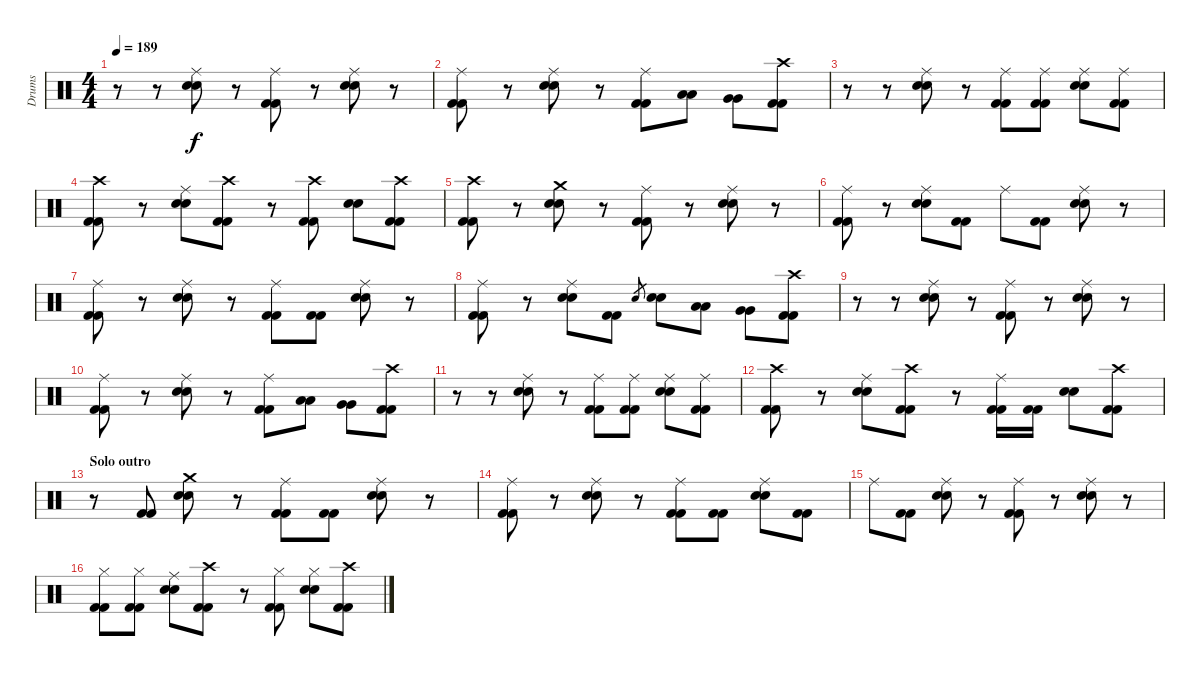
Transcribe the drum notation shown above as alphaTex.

\track ("Drums" "Drums") {instrument percussion}
\staff {score}
\articulation defaults
\ts (4 4)
\tempo 189
\clef neutral
\ks c
r.8{dy f} r.8 ("Ride (middle)" "Snare (hit) 2" "Snare (hit) 2").8 r.8 ("Ride (middle)" "Kick (hit) 2" "Kick (hit) 2").8 r.8 ("Ride (middle)" "Snare (hit) 2" "Snare (hit) 2").8 r.8 |
("Ride (middle)" "Kick (hit) 2" "Kick (hit) 2").8 r.8 ("Ride (middle)" "Snare (hit) 2" "Snare (hit) 2").8 r.8 ("Ride (middle)" "Kick (hit) 2" "Kick (hit) 2").8 ("Low Tom (hit)" "Low Tom (hit)").8 ("Very Low Tom (hit)" "Very Low Tom (hit)").8 ("Crash high (hit)" "Kick (hit) 2" "Kick (hit) 2").8 |
r.8 r.8 ("Ride (middle)" "Snare (hit) 2" "Snare (hit) 2").8 r.8 ("Ride (middle)" "Kick (hit) 2" "Kick (hit) 2").8 ("Ride (middle)" "Kick (hit) 2" "Kick (hit) 2").8 ("Ride (middle)" "Snare (hit) 2" "Snare (hit) 2").8 ("Ride (middle)" "Kick (hit) 2" "Kick (hit) 2").8 |
("Crash high (hit)" "Kick (hit) 2" "Kick (hit) 2").8 r.8 ("Ride (middle)" "Snare (hit) 2" "Snare (hit) 2").8 ("Crash high (hit)" "Kick (hit) 2" "Kick (hit) 2").8 r.8 ("Crash high (hit)" "Kick (hit) 2" "Kick (hit) 2").8 ("Snare (hit) 2" "Snare (hit) 2").8 ("Crash high (hit)" "Kick (hit) 2" "Kick (hit) 2").8 |
("Crash high (hit)" "Kick (hit) 2" "Kick (hit) 2").8 r.8 ("Crash medium (hit)" "Snare (hit) 2" "Snare (hit) 2").8 r.8 ("Ride (middle)" "Kick (hit) 2" "Kick (hit) 2").8 r.8 ("Ride (middle)" "Snare (hit) 2" "Snare (hit) 2").8 r.8 |
("Ride (middle)" "Kick (hit) 2" "Kick (hit) 2").8 r.8 ("Ride (middle)" "Snare (hit) 2" "Snare (hit) 2").8 ("Kick (hit) 2" "Kick (hit) 2").8 "Ride (middle)".8 ("Kick (hit) 2" "Kick (hit) 2").8 ("Ride (middle)" "Snare (hit) 2" "Snare (hit) 2").8 r.8 |
("Ride (middle)" "Kick (hit) 2" "Kick (hit) 2").8 r.8 ("Ride (middle)" "Snare (hit) 2" "Snare (hit) 2").8 r.8 ("Ride (middle)" "Kick (hit) 2" "Kick (hit) 2").8 ("Kick (hit) 2" "Kick (hit) 2").8 ("Ride (middle)" "Snare (hit) 2" "Snare (hit) 2").8 r.8 |
("Ride (middle)" "Kick (hit) 2" "Kick (hit) 2").8 r.8 ("Ride (middle)" "Snare (hit) 2" "Snare (hit) 2").8 ("Kick (hit) 2" "Kick (hit) 2").8 "Snare (hit) 2".8{gr} ("Snare (hit) 2" "Snare (hit) 2").8 ("Low Tom (hit)" "Low Tom (hit)").8 ("Very Low Tom (hit)" "Very Low Tom (hit)").8 ("Crash high (hit)" "Kick (hit) 2" "Kick (hit) 2").8 |
r.8 r.8 ("Ride (middle)" "Snare (hit) 2" "Snare (hit) 2").8 r.8 ("Ride (middle)" "Kick (hit) 2" "Kick (hit) 2").8 r.8 ("Ride (middle)" "Snare (hit) 2" "Snare (hit) 2").8 r.8 |
("Ride (middle)" "Kick (hit) 2" "Kick (hit) 2").8 r.8 ("Ride (middle)" "Snare (hit) 2" "Snare (hit) 2").8 r.8 ("Ride (middle)" "Kick (hit) 2" "Kick (hit) 2").8 ("Low Tom (hit)" "Low Tom (hit)").8 ("Very Low Tom (hit)" "Very Low Tom (hit)").8 ("Crash high (hit)" "Kick (hit) 2" "Kick (hit) 2").8 |
r.8 r.8 ("Ride (middle)" "Snare (hit) 2" "Snare (hit) 2").8 r.8 ("Ride (middle)" "Kick (hit) 2" "Kick (hit) 2").8 ("Ride (middle)" "Kick (hit) 2" "Kick (hit) 2").8 ("Ride (middle)" "Snare (hit) 2" "Snare (hit) 2").8 ("Ride (middle)" "Kick (hit) 2" "Kick (hit) 2").8 |
("Crash high (hit)" "Kick (hit) 2" "Kick (hit) 2").8 r.8 ("Ride (middle)" "Snare (hit) 2" "Snare (hit) 2").8 ("Crash high (hit)" "Kick (hit) 2" "Kick (hit) 2").8 r.8 ("Ride (middle)" "Kick (hit) 2" "Kick (hit) 2").16 ("Kick (hit) 2" "Kick (hit) 2").16 ("Snare (hit) 2" "Snare (hit) 2").8 ("Crash high (hit)" "Kick (hit) 2" "Kick (hit) 2").8 |
\section ("" "Solo outro")
r.8 ("Kick (hit) 2" "Kick (hit) 2").8 ("Crash medium (hit)" "Snare (hit) 2" "Snare (hit) 2").8 r.8 ("Ride (middle)" "Kick (hit) 2" "Kick (hit) 2").8 ("Kick (hit) 2" "Kick (hit) 2").8 ("Ride (middle)" "Snare (hit) 2" "Snare (hit) 2").8 r.8 |
("Ride (middle)" "Kick (hit) 2" "Kick (hit) 2").8 r.8 ("Ride (middle)" "Snare (hit) 2" "Snare (hit) 2").8 r.8 ("Ride (middle)" "Kick (hit) 2" "Kick (hit) 2").8 ("Kick (hit) 2" "Kick (hit) 2").8 ("Ride (middle)" "Snare (hit) 2" "Snare (hit) 2").8 ("Kick (hit) 2" "Kick (hit) 2").8 |
"Ride (middle)".8 ("Kick (hit) 2" "Kick (hit) 2").8 ("Ride (middle)" "Snare (hit) 2" "Snare (hit) 2").8 r.8 ("Ride (middle)" "Kick (hit) 2" "Kick (hit) 2").8 r.8 ("Ride (middle)" "Snare (hit) 2" "Snare (hit) 2").8 r.8 |
("Hi-Hat (closed)" "Kick (hit) 2" "Kick (hit) 2").8 ("Hi-Hat (closed)" "Kick (hit) 2" "Kick (hit) 2").8 ("Ride (middle)" "Snare (hit) 2" "Snare (hit) 2").8 ("Crash high (hit)" "Kick (hit) 2" "Kick (hit) 2").8 r.8 ("Hi-Hat (closed)" "Kick (hit) 2" "Kick (hit) 2").8 ("Hi-Hat (closed)" "Snare (hit) 2" "Snare (hit) 2").8 ("Crash high (hit)" "Kick (hit) 2" "Kick (hit) 2").8
